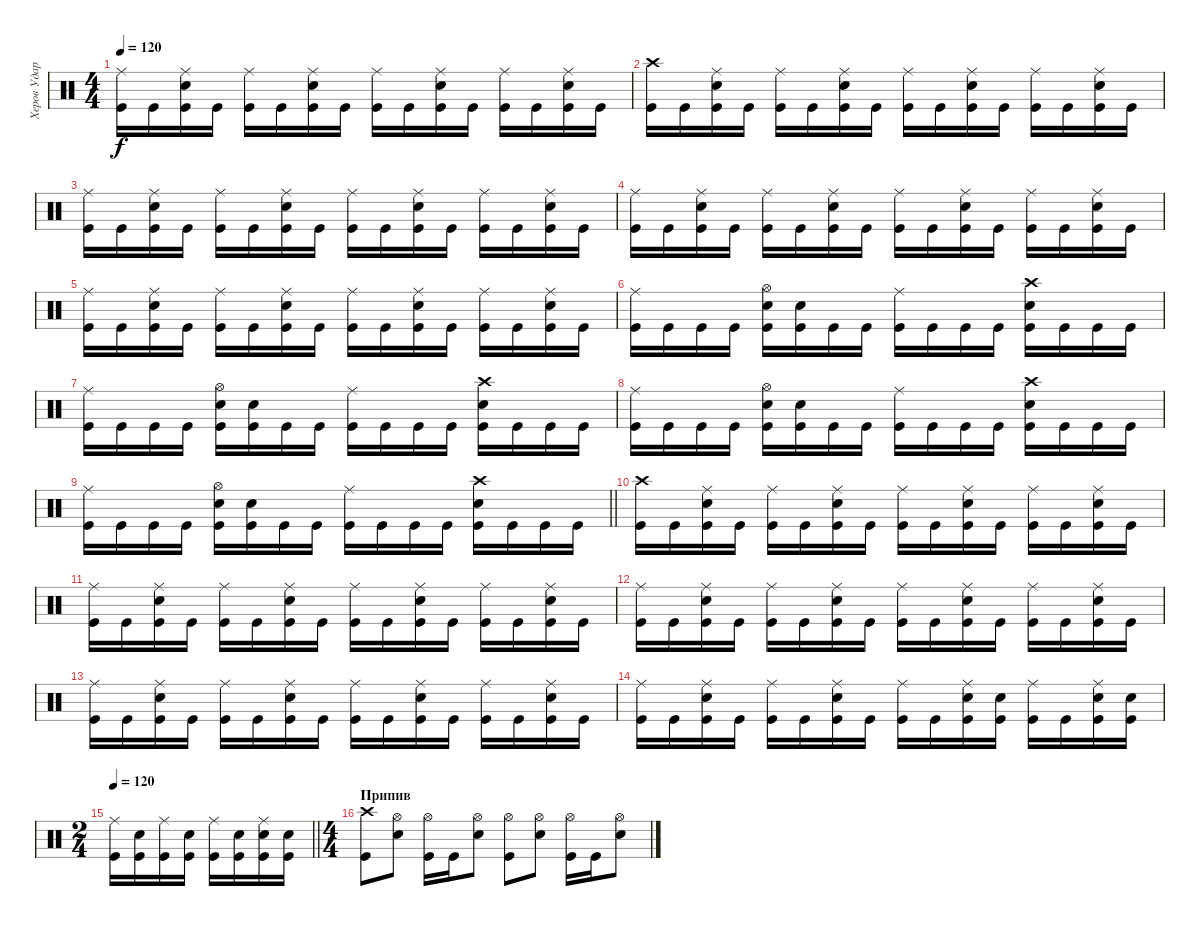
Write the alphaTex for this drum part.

\track ("Херов Ударник" "Херов Удар") {instrument percussion}
\staff {score}
\articulation defaults
\ts (4 4)
\tempo 120
\clef neutral
\ks c
("Ride (middle)" "Kick (hit)").16{dy f} "Kick (hit)".16 ("Ride (middle)" "Electric Snare (hit)" "Kick (hit)").16 "Kick (hit)".16 ("Ride (middle)" "Kick (hit)").16 "Kick (hit)".16 ("Ride (middle)" "Electric Snare (hit)" "Kick (hit)").16 "Kick (hit)".16 ("Ride (middle)" "Kick (hit)").16 "Kick (hit)".16 ("Ride (middle)" "Electric Snare (hit)" "Kick (hit)").16 "Kick (hit)".16 ("Ride (middle)" "Kick (hit)").16 "Kick (hit)".16 ("Ride (middle)" "Electric Snare (hit)" "Kick (hit)").16 "Kick (hit)".16 |
("Crash high (hit)" "Kick (hit)").16 "Kick (hit)".16 ("Ride (middle)" "Electric Snare (hit)" "Kick (hit)").16 "Kick (hit)".16 ("Ride (middle)" "Kick (hit)").16 "Kick (hit)".16 ("Ride (middle)" "Electric Snare (hit)" "Kick (hit)").16 "Kick (hit)".16 ("Ride (middle)" "Kick (hit)").16 "Kick (hit)".16 ("Ride (middle)" "Electric Snare (hit)" "Kick (hit)").16 "Kick (hit)".16 ("Ride (middle)" "Kick (hit)").16 "Kick (hit)".16 ("Ride (middle)" "Electric Snare (hit)" "Kick (hit)").16 "Kick (hit)".16 |
("Ride (middle)" "Kick (hit)").16 "Kick (hit)".16 ("Ride (middle)" "Electric Snare (hit)" "Kick (hit)").16 "Kick (hit)".16 ("Ride (middle)" "Kick (hit)").16 "Kick (hit)".16 ("Ride (middle)" "Electric Snare (hit)" "Kick (hit)").16 "Kick (hit)".16 ("Ride (middle)" "Kick (hit)").16 "Kick (hit)".16 ("Ride (middle)" "Electric Snare (hit)" "Kick (hit)").16 "Kick (hit)".16 ("Ride (middle)" "Kick (hit)").16 "Kick (hit)".16 ("Ride (middle)" "Electric Snare (hit)" "Kick (hit)").16 "Kick (hit)".16 |
("Ride (middle)" "Kick (hit)").16 "Kick (hit)".16 ("Ride (middle)" "Electric Snare (hit)" "Kick (hit)").16 "Kick (hit)".16 ("Ride (middle)" "Kick (hit)").16 "Kick (hit)".16 ("Ride (middle)" "Electric Snare (hit)" "Kick (hit)").16 "Kick (hit)".16 ("Ride (middle)" "Kick (hit)").16 "Kick (hit)".16 ("Ride (middle)" "Electric Snare (hit)" "Kick (hit)").16 "Kick (hit)".16 ("Ride (middle)" "Kick (hit)").16 "Kick (hit)".16 ("Ride (middle)" "Electric Snare (hit)" "Kick (hit)").16 "Kick (hit)".16 |
("Ride (middle)" "Kick (hit)").16 "Kick (hit)".16 ("Ride (middle)" "Electric Snare (hit)" "Kick (hit)").16 "Kick (hit)".16 ("Ride (middle)" "Kick (hit)").16 "Kick (hit)".16 ("Ride (middle)" "Electric Snare (hit)" "Kick (hit)").16 "Kick (hit)".16 ("Ride (middle)" "Kick (hit)").16 "Kick (hit)".16 ("Ride (middle)" "Electric Snare (hit)" "Kick (hit)").16 "Kick (hit)".16 ("Ride (middle)" "Kick (hit)").16 "Kick (hit)".16 ("Ride (middle)" "Electric Snare (hit)" "Kick (hit)").16 "Kick (hit)".16 |
("Ride (middle)" "Kick (hit)").16 "Kick (hit)".16 "Kick (hit)".16 "Kick (hit)".16 ("Hi-Hat (open)" "Electric Snare (hit)" "Kick (hit)").16 ("Electric Snare (hit)" "Kick (hit)").16 "Kick (hit)".16 "Kick (hit)".16 ("Ride (middle)" "Kick (hit)").16 "Kick (hit)".16 "Kick (hit)".16 "Kick (hit)".16 ("Crash high (hit)" "Electric Snare (hit)" "Kick (hit)").16 "Kick (hit)".16 "Kick (hit)".16 "Kick (hit)".16 |
("Ride (middle)" "Kick (hit)").16 "Kick (hit)".16 "Kick (hit)".16 "Kick (hit)".16 ("Hi-Hat (open)" "Electric Snare (hit)" "Kick (hit)").16 ("Electric Snare (hit)" "Kick (hit)").16 "Kick (hit)".16 "Kick (hit)".16 ("Ride (middle)" "Kick (hit)").16 "Kick (hit)".16 "Kick (hit)".16 "Kick (hit)".16 ("Crash high (hit)" "Electric Snare (hit)" "Kick (hit)").16 "Kick (hit)".16 "Kick (hit)".16 "Kick (hit)".16 |
("Ride (middle)" "Kick (hit)").16 "Kick (hit)".16 "Kick (hit)".16 "Kick (hit)".16 ("Hi-Hat (open)" "Electric Snare (hit)" "Kick (hit)").16 ("Electric Snare (hit)" "Kick (hit)").16 "Kick (hit)".16 "Kick (hit)".16 ("Ride (middle)" "Kick (hit)").16 "Kick (hit)".16 "Kick (hit)".16 "Kick (hit)".16 ("Crash high (hit)" "Electric Snare (hit)" "Kick (hit)").16 "Kick (hit)".16 "Kick (hit)".16 "Kick (hit)".16 |
\barLineRight lightlight
("Ride (middle)" "Kick (hit)").16 "Kick (hit)".16 "Kick (hit)".16 "Kick (hit)".16 ("Hi-Hat (open)" "Electric Snare (hit)" "Kick (hit)").16 ("Electric Snare (hit)" "Kick (hit)").16 "Kick (hit)".16 "Kick (hit)".16 ("Ride (middle)" "Kick (hit)").16 "Kick (hit)".16 "Kick (hit)".16 "Kick (hit)".16 ("Crash high (hit)" "Electric Snare (hit)" "Kick (hit)").16 "Kick (hit)".16 "Kick (hit)".16 "Kick (hit)".16 |
("Crash high (hit)" "Kick (hit)").16 "Kick (hit)".16 ("Ride (middle)" "Electric Snare (hit)" "Kick (hit)").16 "Kick (hit)".16 ("Ride (middle)" "Kick (hit)").16 "Kick (hit)".16 ("Ride (middle)" "Electric Snare (hit)" "Kick (hit)").16 "Kick (hit)".16 ("Ride (middle)" "Kick (hit)").16 "Kick (hit)".16 ("Ride (middle)" "Electric Snare (hit)" "Kick (hit)").16 "Kick (hit)".16 ("Ride (middle)" "Kick (hit)").16 "Kick (hit)".16 ("Ride (middle)" "Electric Snare (hit)" "Kick (hit)").16 "Kick (hit)".16 |
("Ride (middle)" "Kick (hit)").16 "Kick (hit)".16 ("Ride (middle)" "Electric Snare (hit)" "Kick (hit)").16 "Kick (hit)".16 ("Ride (middle)" "Kick (hit)").16 "Kick (hit)".16 ("Ride (middle)" "Electric Snare (hit)" "Kick (hit)").16 "Kick (hit)".16 ("Ride (middle)" "Kick (hit)").16 "Kick (hit)".16 ("Ride (middle)" "Electric Snare (hit)" "Kick (hit)").16 "Kick (hit)".16 ("Ride (middle)" "Kick (hit)").16 "Kick (hit)".16 ("Ride (middle)" "Electric Snare (hit)" "Kick (hit)").16 "Kick (hit)".16 |
("Ride (middle)" "Kick (hit)").16 "Kick (hit)".16 ("Ride (middle)" "Electric Snare (hit)" "Kick (hit)").16 "Kick (hit)".16 ("Ride (middle)" "Kick (hit)").16 "Kick (hit)".16 ("Ride (middle)" "Electric Snare (hit)" "Kick (hit)").16 "Kick (hit)".16 ("Ride (middle)" "Kick (hit)").16 "Kick (hit)".16 ("Ride (middle)" "Electric Snare (hit)" "Kick (hit)").16 "Kick (hit)".16 ("Ride (middle)" "Kick (hit)").16 "Kick (hit)".16 ("Ride (middle)" "Electric Snare (hit)" "Kick (hit)").16 "Kick (hit)".16 |
("Ride (middle)" "Kick (hit)").16 "Kick (hit)".16 ("Ride (middle)" "Electric Snare (hit)" "Kick (hit)").16 "Kick (hit)".16 ("Ride (middle)" "Kick (hit)").16 "Kick (hit)".16 ("Ride (middle)" "Electric Snare (hit)" "Kick (hit)").16 "Kick (hit)".16 ("Ride (middle)" "Kick (hit)").16 "Kick (hit)".16 ("Ride (middle)" "Electric Snare (hit)" "Kick (hit)").16 "Kick (hit)".16 ("Ride (middle)" "Kick (hit)").16 "Kick (hit)".16 ("Ride (middle)" "Electric Snare (hit)" "Kick (hit)").16 "Kick (hit)".16 |
("Ride (middle)" "Kick (hit)").16 "Kick (hit)".16 ("Ride (middle)" "Electric Snare (hit)" "Kick (hit)").16 "Kick (hit)".16 ("Ride (middle)" "Kick (hit)").16 "Kick (hit)".16 ("Ride (middle)" "Electric Snare (hit)" "Kick (hit)").16 "Kick (hit)".16 ("Ride (middle)" "Kick (hit)").16 "Kick (hit)".16 ("Ride (middle)" "Electric Snare (hit)" "Kick (hit)").16 ("Electric Snare (hit)" "Kick (hit)").16 ("Ride (middle)" "Kick (hit)").16 "Kick (hit)".16 ("Ride (middle)" "Electric Snare (hit)" "Kick (hit)").16 ("Electric Snare (hit)" "Kick (hit)").16 |
\ts (2 4)
\tempo 120
\barLineRight lightlight
("Ride (middle)" "Kick (hit)").16 ("Electric Snare (hit)" "Kick (hit)").16 ("Ride (middle)" "Kick (hit)").16 ("Electric Snare (hit)" "Kick (hit)").16 ("Ride (middle)" "Kick (hit)").16 ("Electric Snare (hit)" "Kick (hit)").16 ("Ride (middle)" "Electric Snare (hit)" "Kick (hit)").16 ("Electric Snare (hit)" "Kick (hit)").16 |
\ts (4 4)
\section ("" "Припив")
("Crash high (hit)" "Kick (hit)").8 ("Hi-Hat (open)" "Electric Snare (hit)").8 ("Hi-Hat (open)" "Kick (hit)").16 "Kick (hit)".16 ("Hi-Hat (open)" "Electric Snare (hit)").8 ("Hi-Hat (open)" "Kick (hit)").8 ("Hi-Hat (open)" "Electric Snare (hit)").8 ("Hi-Hat (open)" "Kick (hit)").16 "Kick (hit)".16 ("Hi-Hat (open)" "Electric Snare (hit)").8
